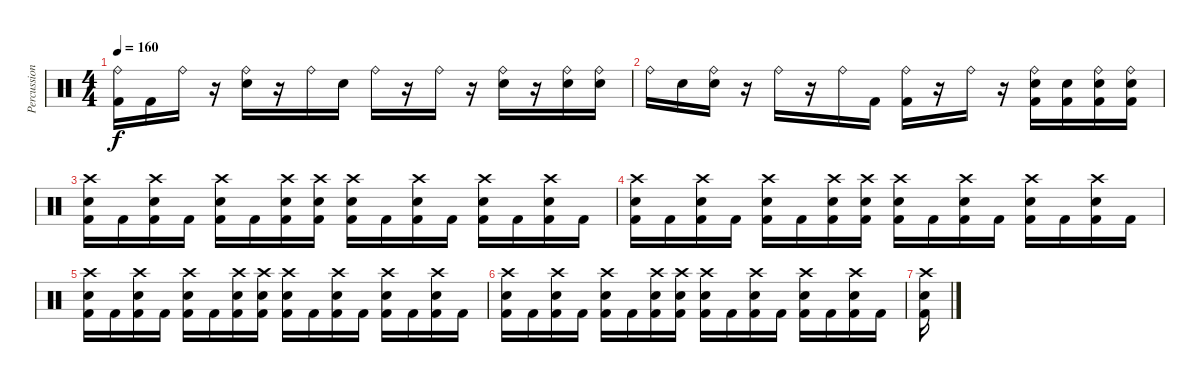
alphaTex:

\track ("Percussion" "Percussion") {instrument percussion}
\staff {score}
\articulation defaults
\ts (4 4)
\tempo 160
\clef neutral
\ks c
("Ride (bell)" "Kick (hit) 2").16{dy f} "Kick (hit) 2".16 "Ride (bell)".16 r.16 ("Ride (bell)" "Snare (hit) 2").16 r.16 "Ride (bell)".16 "Snare (hit) 2".16 "Ride (bell)".16 r.16 "Ride (bell)".16 r.16 ("Ride (bell)" "Snare (hit) 2").16 r.16 ("Ride (bell)" "Snare (hit) 2").16 ("Ride (bell)" "Snare (hit) 2").16 |
"Ride (bell)".16 "Snare (hit) 2".16 ("Ride (bell)" "Snare (hit) 2").16 r.16 "Ride (bell)".16 r.16 "Ride (bell)".16 "Kick (hit) 2".16 ("Ride (bell)" "Kick (hit) 2").16 r.16 "Ride (bell)".16 r.16 ("Ride (bell)" "Snare (hit) 2" "Kick (hit) 2").16 ("Snare (hit) 2" "Kick (hit) 2").16 ("Ride (bell)" "Snare (hit) 2" "Kick (hit) 2").16 ("Ride (bell)" "Snare (hit) 2" "Kick (hit) 2").16 |
("Crash high (hit)" "Snare (hit) 2" "Kick (hit) 2").16 "Kick (hit) 2".16 ("Crash high (hit)" "Snare (hit) 2" "Kick (hit) 2").16 "Kick (hit) 2".16 ("Crash high (hit)" "Snare (hit) 2" "Kick (hit) 2").16 "Kick (hit) 2".16 ("Crash high (hit)" "Snare (hit) 2" "Kick (hit) 2").16 ("Crash high (hit)" "Snare (hit) 2" "Kick (hit) 2").16 ("Crash high (hit)" "Snare (hit) 2" "Kick (hit) 2").16 "Kick (hit) 2".16 ("Crash high (hit)" "Snare (hit) 2" "Kick (hit) 2").16 "Kick (hit) 2".16 ("Crash high (hit)" "Snare (hit) 2" "Kick (hit) 2").16 "Kick (hit) 2".16 ("Crash high (hit)" "Snare (hit) 2" "Kick (hit) 2").16 "Kick (hit) 2".16 |
("Crash high (hit)" "Snare (hit) 2" "Kick (hit) 2").16 "Kick (hit) 2".16 ("Crash high (hit)" "Snare (hit) 2" "Kick (hit) 2").16 "Kick (hit) 2".16 ("Crash high (hit)" "Snare (hit) 2" "Kick (hit) 2").16 "Kick (hit) 2".16 ("Crash high (hit)" "Snare (hit) 2" "Kick (hit) 2").16 ("Crash high (hit)" "Snare (hit) 2" "Kick (hit) 2").16 ("Crash high (hit)" "Snare (hit) 2" "Kick (hit) 2").16 "Kick (hit) 2".16 ("Crash high (hit)" "Snare (hit) 2" "Kick (hit) 2").16 "Kick (hit) 2".16 ("Crash high (hit)" "Snare (hit) 2" "Kick (hit) 2").16 "Kick (hit) 2".16 ("Crash high (hit)" "Snare (hit) 2" "Kick (hit) 2").16 "Kick (hit) 2".16 |
("Crash high (hit)" "Snare (hit) 2" "Kick (hit) 2").16 "Kick (hit) 2".16 ("Crash high (hit)" "Snare (hit) 2" "Kick (hit) 2").16 "Kick (hit) 2".16 ("Crash high (hit)" "Snare (hit) 2" "Kick (hit) 2").16 "Kick (hit) 2".16 ("Crash high (hit)" "Snare (hit) 2" "Kick (hit) 2").16 ("Crash high (hit)" "Snare (hit) 2" "Kick (hit) 2").16 ("Crash high (hit)" "Snare (hit) 2" "Kick (hit) 2").16 "Kick (hit) 2".16 ("Crash high (hit)" "Snare (hit) 2" "Kick (hit) 2").16 "Kick (hit) 2".16 ("Crash high (hit)" "Snare (hit) 2" "Kick (hit) 2").16 "Kick (hit) 2".16 ("Crash high (hit)" "Snare (hit) 2" "Kick (hit) 2").16 "Kick (hit) 2".16 |
("Crash high (hit)" "Snare (hit) 2" "Kick (hit) 2").16 "Kick (hit) 2".16 ("Crash high (hit)" "Snare (hit) 2" "Kick (hit) 2").16 "Kick (hit) 2".16 ("Crash high (hit)" "Snare (hit) 2" "Kick (hit) 2").16 "Kick (hit) 2".16 ("Crash high (hit)" "Snare (hit) 2" "Kick (hit) 2").16 ("Crash high (hit)" "Snare (hit) 2" "Kick (hit) 2").16 ("Crash high (hit)" "Snare (hit) 2" "Kick (hit) 2").16 "Kick (hit) 2".16 ("Crash high (hit)" "Snare (hit) 2" "Kick (hit) 2").16 "Kick (hit) 2".16 ("Crash high (hit)" "Snare (hit) 2" "Kick (hit) 2").16 "Kick (hit) 2".16 ("Crash high (hit)" "Snare (hit) 2" "Kick (hit) 2").16 "Kick (hit) 2".16 |
("Crash high (hit)" "Snare (hit) 2" "Kick (hit) 2").16
